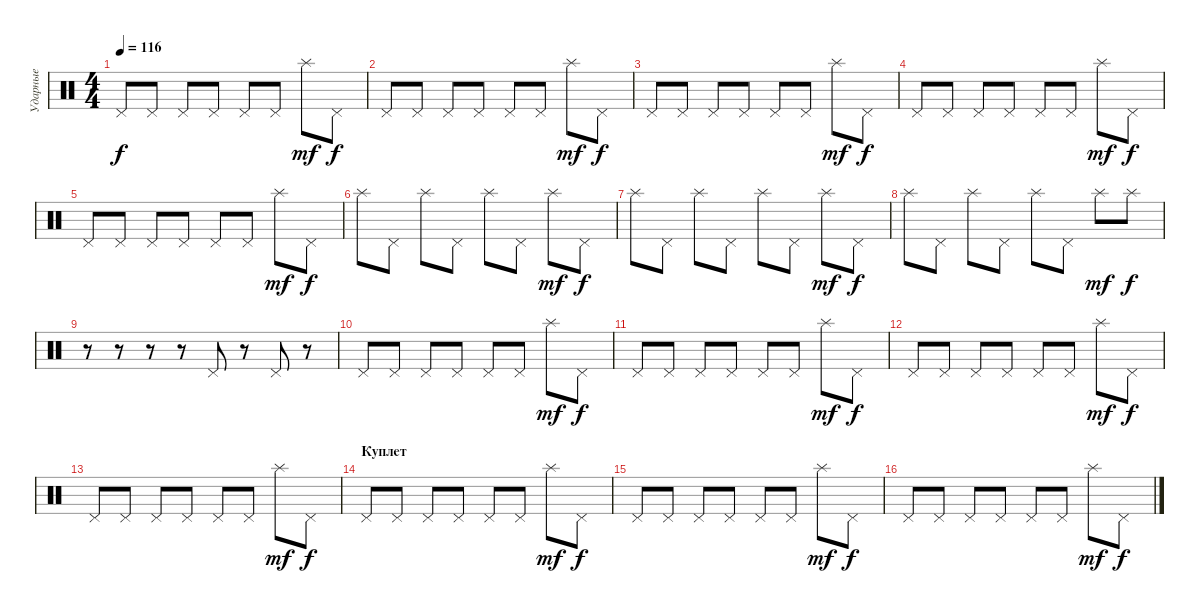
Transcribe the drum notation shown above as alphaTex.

\track ("Ударные" "Ударные") {instrument percussion}
\staff {score}
\articulation defaults
\ts (4 4)
\tempo 116
\clef neutral
\ks c "Pedal Hi-Hat (hit)".8{dy f} "Pedal Hi-Hat (hit)".8 "Pedal Hi-Hat (hit)".8 "Pedal Hi-Hat (hit)".8 "Pedal Hi-Hat (hit)".8 "Pedal Hi-Hat (hit)".8 "Splash (hit)".8{dy mf} "Pedal Hi-Hat (hit)".8{dy f}
|
"Pedal Hi-Hat (hit)".8 "Pedal Hi-Hat (hit)".8 "Pedal Hi-Hat (hit)".8 "Pedal Hi-Hat (hit)".8 "Pedal Hi-Hat (hit)".8 "Pedal Hi-Hat (hit)".8 "Splash (hit)".8{dy mf} "Pedal Hi-Hat (hit)".8{dy f} |
"Pedal Hi-Hat (hit)".8 "Pedal Hi-Hat (hit)".8 "Pedal Hi-Hat (hit)".8 "Pedal Hi-Hat (hit)".8 "Pedal Hi-Hat (hit)".8 "Pedal Hi-Hat (hit)".8 "Splash (hit)".8{dy mf} "Pedal Hi-Hat (hit)".8{dy f} |
"Pedal Hi-Hat (hit)".8 "Pedal Hi-Hat (hit)".8 "Pedal Hi-Hat (hit)".8 "Pedal Hi-Hat (hit)".8 "Pedal Hi-Hat (hit)".8 "Pedal Hi-Hat (hit)".8 "Splash (hit)".8{dy mf} "Pedal Hi-Hat (hit)".8{dy f} |
"Pedal Hi-Hat (hit)".8 "Pedal Hi-Hat (hit)".8 "Pedal Hi-Hat (hit)".8 "Pedal Hi-Hat (hit)".8 "Pedal Hi-Hat (hit)".8 "Pedal Hi-Hat (hit)".8 "Splash (hit)".8{dy mf} "Pedal Hi-Hat (hit)".8{dy f} |
"Splash (hit)".8 "Pedal Hi-Hat (hit)".8 "Splash (hit)".8 "Pedal Hi-Hat (hit)".8 "Splash (hit)".8 "Pedal Hi-Hat (hit)".8 "Splash (hit)".8{dy mf} "Pedal Hi-Hat (hit)".8{dy f} |
"Splash (hit)".8 "Pedal Hi-Hat (hit)".8 "Splash (hit)".8 "Pedal Hi-Hat (hit)".8 "Splash (hit)".8 "Pedal Hi-Hat (hit)".8 "Splash (hit)".8{dy mf} "Pedal Hi-Hat (hit)".8{dy f} |
"Splash (hit)".8 "Pedal Hi-Hat (hit)".8 "Splash (hit)".8 "Pedal Hi-Hat (hit)".8 "Splash (hit)".8 "Pedal Hi-Hat (hit)".8 "Splash (hit)".8{dy mf} "Splash (hit)".8{dy f} |
r.8 r.8 r.8 r.8 "Pedal Hi-Hat (hit)".8 r.8 "Pedal Hi-Hat (hit)".8 r.8 |
"Pedal Hi-Hat (hit)".8 "Pedal Hi-Hat (hit)".8 "Pedal Hi-Hat (hit)".8 "Pedal Hi-Hat (hit)".8 "Pedal Hi-Hat (hit)".8 "Pedal Hi-Hat (hit)".8 "Splash (hit)".8{dy mf} "Pedal Hi-Hat (hit)".8{dy f} |
"Pedal Hi-Hat (hit)".8 "Pedal Hi-Hat (hit)".8 "Pedal Hi-Hat (hit)".8 "Pedal Hi-Hat (hit)".8 "Pedal Hi-Hat (hit)".8 "Pedal Hi-Hat (hit)".8 "Splash (hit)".8{dy mf} "Pedal Hi-Hat (hit)".8{dy f} |
"Pedal Hi-Hat (hit)".8 "Pedal Hi-Hat (hit)".8 "Pedal Hi-Hat (hit)".8 "Pedal Hi-Hat (hit)".8 "Pedal Hi-Hat (hit)".8 "Pedal Hi-Hat (hit)".8 "Splash (hit)".8{dy mf} "Pedal Hi-Hat (hit)".8{dy f} |
"Pedal Hi-Hat (hit)".8 "Pedal Hi-Hat (hit)".8 "Pedal Hi-Hat (hit)".8 "Pedal Hi-Hat (hit)".8 "Pedal Hi-Hat (hit)".8 "Pedal Hi-Hat (hit)".8 "Splash (hit)".8{dy mf} "Pedal Hi-Hat (hit)".8{dy f} |
\section ("" "Куплет")
"Pedal Hi-Hat (hit)".8 "Pedal Hi-Hat (hit)".8 "Pedal Hi-Hat (hit)".8 "Pedal Hi-Hat (hit)".8 "Pedal Hi-Hat (hit)".8 "Pedal Hi-Hat (hit)".8 "Splash (hit)".8{dy mf} "Pedal Hi-Hat (hit)".8{dy f} |
"Pedal Hi-Hat (hit)".8 "Pedal Hi-Hat (hit)".8 "Pedal Hi-Hat (hit)".8 "Pedal Hi-Hat (hit)".8 "Pedal Hi-Hat (hit)".8 "Pedal Hi-Hat (hit)".8 "Splash (hit)".8{dy mf} "Pedal Hi-Hat (hit)".8{dy f} |
"Pedal Hi-Hat (hit)".8 "Pedal Hi-Hat (hit)".8 "Pedal Hi-Hat (hit)".8 "Pedal Hi-Hat (hit)".8 "Pedal Hi-Hat (hit)".8 "Pedal Hi-Hat (hit)".8 "Splash (hit)".8{dy mf} "Pedal Hi-Hat (hit)".8{dy f}
